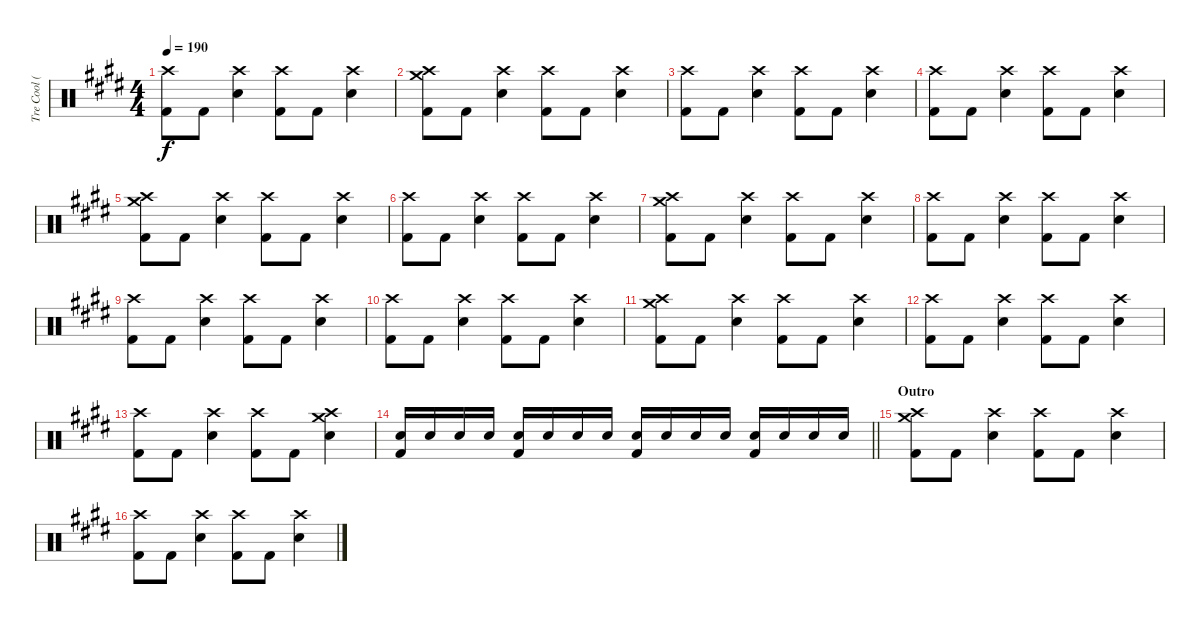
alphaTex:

\track ("Tre Cool (Drums)" "Tre Cool (") {instrument percussion}
\staff {score}
\articulation defaults
\ts (4 4)
\tempo 190
\clef neutral
\ks e
("Kick (hit) 2" "Crash high (hit)").8{dy f} "Kick (hit) 2".8 ("Electric Snare (hit)" "Crash high (hit)").4 ("Kick (hit) 2" "Crash high (hit)").8 "Kick (hit) 2".8 ("Electric Snare (hit)" "Crash high (hit)").4 |
("Kick (hit) 2" "Crash medium (hit)" "Crash high (hit)").8 "Kick (hit) 2".8 ("Electric Snare (hit)" "Crash high (hit)").4 ("Kick (hit) 2" "Crash high (hit)").8 "Kick (hit) 2".8 ("Electric Snare (hit)" "Crash high (hit)").4 |
("Kick (hit) 2" "Crash high (hit)").8 "Kick (hit) 2".8 ("Electric Snare (hit)" "Crash high (hit)").4 ("Kick (hit) 2" "Crash high (hit)").8 "Kick (hit) 2".8 ("Electric Snare (hit)" "Crash high (hit)").4 |
("Kick (hit) 2" "Crash high (hit)").8 "Kick (hit) 2".8 ("Electric Snare (hit)" "Crash high (hit)").4 ("Kick (hit) 2" "Crash high (hit)").8 "Kick (hit) 2".8 ("Electric Snare (hit)" "Crash high (hit)").4 |
("Kick (hit) 2" "Crash medium (hit)" "Crash high (hit)").8 "Kick (hit) 2".8 ("Electric Snare (hit)" "Crash high (hit)").4 ("Kick (hit) 2" "Crash high (hit)").8 "Kick (hit) 2".8 ("Electric Snare (hit)" "Crash high (hit)").4 |
("Kick (hit) 2" "Crash high (hit)").8 "Kick (hit) 2".8 ("Electric Snare (hit)" "Crash high (hit)").4 ("Kick (hit) 2" "Crash high (hit)").8 "Kick (hit) 2".8 ("Electric Snare (hit)" "Crash high (hit)").4 |
("Kick (hit) 2" "Crash medium (hit)" "Crash high (hit)").8 "Kick (hit) 2".8 ("Electric Snare (hit)" "Crash high (hit)").4 ("Kick (hit) 2" "Crash high (hit)").8 "Kick (hit) 2".8 ("Electric Snare (hit)" "Crash high (hit)").4 |
("Kick (hit) 2" "Crash high (hit)").8 "Kick (hit) 2".8 ("Electric Snare (hit)" "Crash high (hit)").4 ("Kick (hit) 2" "Crash high (hit)").8 "Kick (hit) 2".8 ("Electric Snare (hit)" "Crash high (hit)").4 |
("Kick (hit) 2" "Crash high (hit)").8 "Kick (hit) 2".8 ("Electric Snare (hit)" "Crash high (hit)").4 ("Kick (hit) 2" "Crash high (hit)").8 "Kick (hit) 2".8 ("Electric Snare (hit)" "Crash high (hit)").4 |
("Kick (hit) 2" "Crash high (hit)").8 "Kick (hit) 2".8 ("Electric Snare (hit)" "Crash high (hit)").4 ("Kick (hit) 2" "Crash high (hit)").8 "Kick (hit) 2".8 ("Electric Snare (hit)" "Crash high (hit)").4 |
("Kick (hit) 2" "Crash medium (hit)" "Crash high (hit)").8 "Kick (hit) 2".8 ("Electric Snare (hit)" "Crash high (hit)").4 ("Kick (hit) 2" "Crash high (hit)").8 "Kick (hit) 2".8 ("Electric Snare (hit)" "Crash high (hit)").4 |
("Kick (hit) 2" "Crash high (hit)").8 "Kick (hit) 2".8 ("Electric Snare (hit)" "Crash high (hit)").4 ("Kick (hit) 2" "Crash high (hit)").8 "Kick (hit) 2".8 ("Electric Snare (hit)" "Crash high (hit)").4 |
("Kick (hit) 2" "Crash high (hit)").8 "Kick (hit) 2".8 ("Electric Snare (hit)" "Crash high (hit)").4 ("Kick (hit) 2" "Crash high (hit)").8 "Kick (hit) 2".8 ("Electric Snare (hit)" "Crash medium (hit)" "Crash high (hit)").4 |
\barLineRight lightlight
("Kick (hit) 2" "Electric Snare (hit)").16 "Electric Snare (hit)".16 "Electric Snare (hit)".16 "Electric Snare (hit)".16 ("Kick (hit) 2" "Electric Snare (hit)").16 "Electric Snare (hit)".16 "Electric Snare (hit)".16 "Electric Snare (hit)".16 ("Kick (hit) 2" "Electric Snare (hit)").16 "Electric Snare (hit)".16 "Electric Snare (hit)".16 "Electric Snare (hit)".16 ("Kick (hit) 2" "Electric Snare (hit)").16 "Electric Snare (hit)".16 "Electric Snare (hit)".16 "Electric Snare (hit)".16 |
\section ("" "Outro")
("Kick (hit) 2" "Crash medium (hit)" "Crash high (hit)").8 "Kick (hit) 2".8 ("Electric Snare (hit)" "Crash high (hit)").4 ("Kick (hit) 2" "Crash high (hit)").8 "Kick (hit) 2".8 ("Electric Snare (hit)" "Crash high (hit)").4 |
("Kick (hit) 2" "Crash high (hit)").8 "Kick (hit) 2".8 ("Electric Snare (hit)" "Crash high (hit)").4 ("Kick (hit) 2" "Crash high (hit)").8 "Kick (hit) 2".8 ("Electric Snare (hit)" "Crash high (hit)").4
